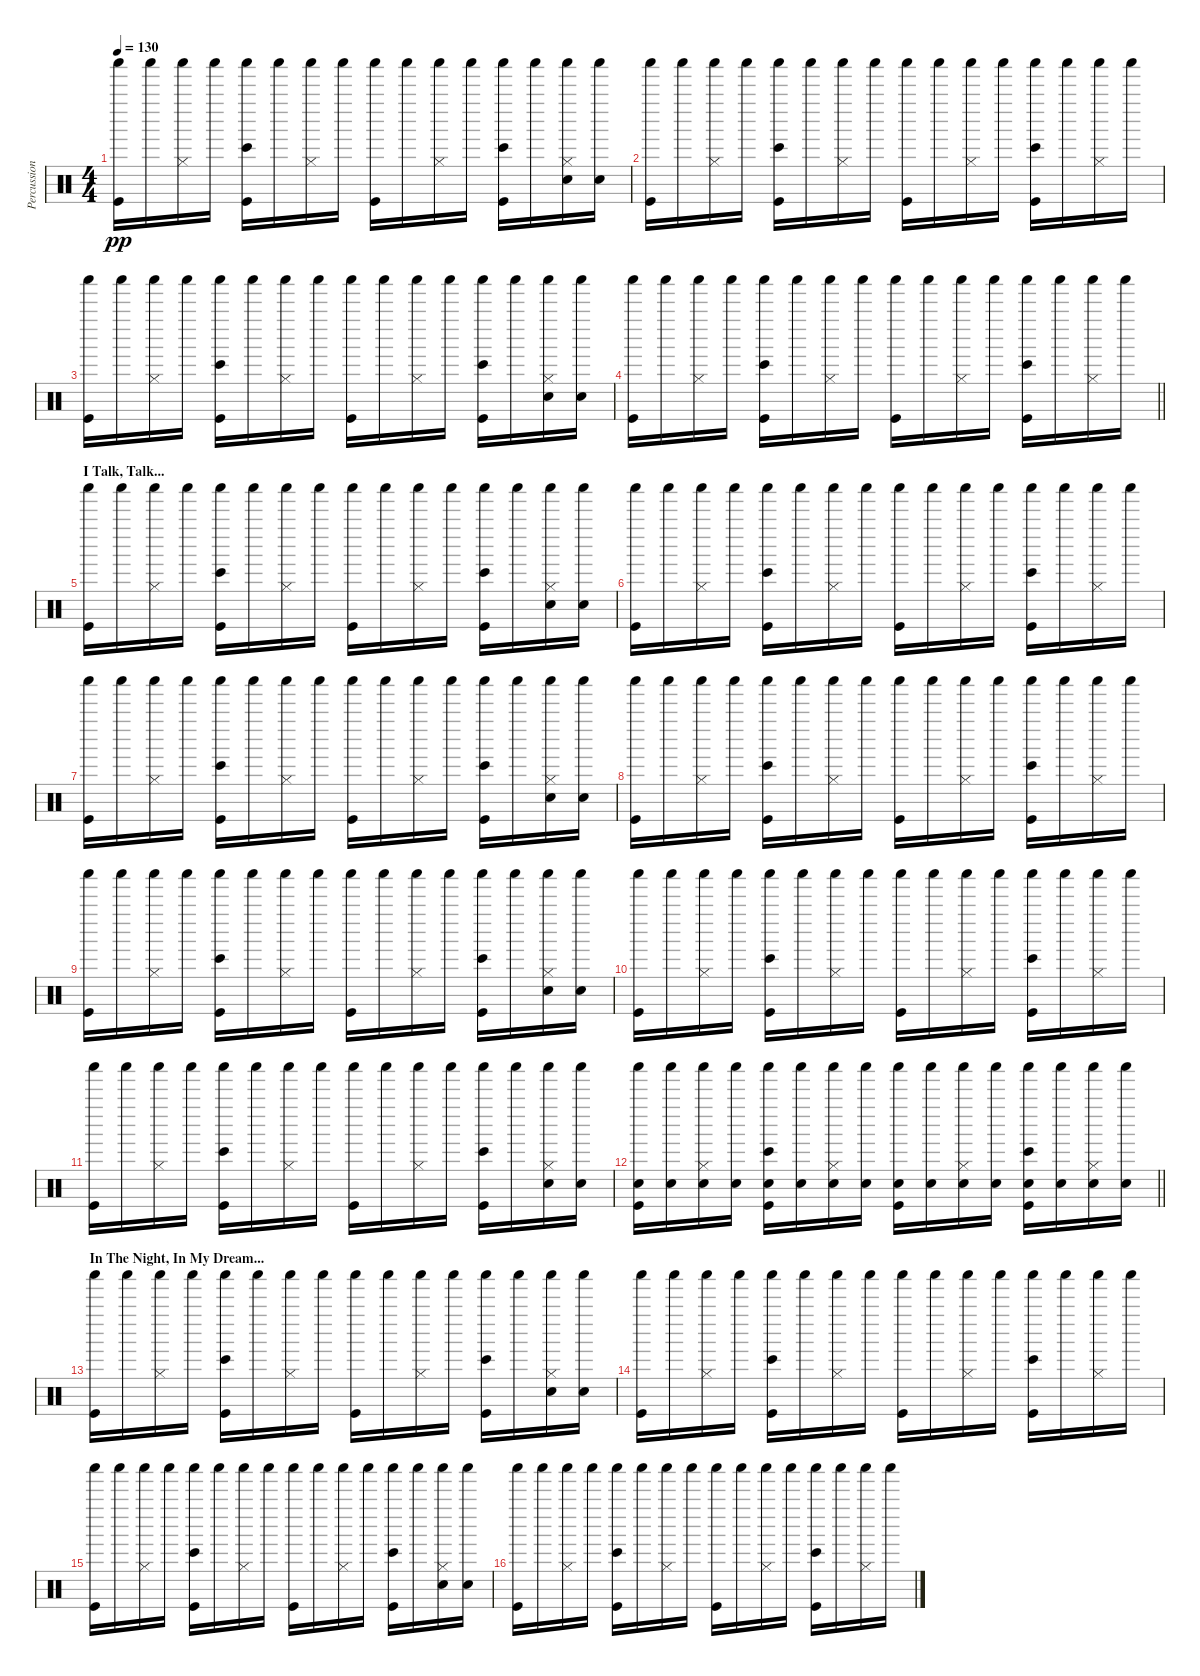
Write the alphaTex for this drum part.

\track ("Percussion" "Percussion") {instrument percussion}
\staff {score}
\articulation defaults
\ts (4 4)
\tempo 130
\clef neutral
\ks c
("Kick (hit)" "Shaker (hit)").16{dy pp} "Shaker (hit)".16 ("Hi-Hat (closed)" "Shaker (hit)").16 "Shaker (hit)".16 ("Kick (hit)" "Bongo High (hit)" "Shaker (hit)").16 "Shaker (hit)".16 ("Hi-Hat (closed)" "Shaker (hit)").16 "Shaker (hit)".16 ("Kick (hit)" "Shaker (hit)").16 "Shaker (hit)".16 ("Hi-Hat (closed)" "Shaker (hit)").16 "Shaker (hit)".16 ("Kick (hit)" "Bongo High (hit)" "Shaker (hit)").16 "Shaker (hit)".16 ("Electric Snare (hit)" "Hi-Hat (closed)" "Shaker (hit)").16 ("Electric Snare (hit)" "Shaker (hit)").16 |
("Kick (hit)" "Shaker (hit)").16 "Shaker (hit)".16 ("Hi-Hat (closed)" "Shaker (hit)").16 "Shaker (hit)".16 ("Kick (hit)" "Bongo High (hit)" "Shaker (hit)").16 "Shaker (hit)".16 ("Hi-Hat (closed)" "Shaker (hit)").16 "Shaker (hit)".16 ("Kick (hit)" "Shaker (hit)").16 "Shaker (hit)".16 ("Hi-Hat (closed)" "Shaker (hit)").16 "Shaker (hit)".16 ("Kick (hit)" "Bongo High (hit)" "Shaker (hit)").16 "Shaker (hit)".16 ("Hi-Hat (closed)" "Shaker (hit)").16 "Shaker (hit)".16 |
("Kick (hit)" "Shaker (hit)").16 "Shaker (hit)".16 ("Hi-Hat (closed)" "Shaker (hit)").16 "Shaker (hit)".16 ("Kick (hit)" "Bongo High (hit)" "Shaker (hit)").16 "Shaker (hit)".16 ("Hi-Hat (closed)" "Shaker (hit)").16 "Shaker (hit)".16 ("Kick (hit)" "Shaker (hit)").16 "Shaker (hit)".16 ("Hi-Hat (closed)" "Shaker (hit)").16 "Shaker (hit)".16 ("Kick (hit)" "Bongo High (hit)" "Shaker (hit)").16 "Shaker (hit)".16 ("Electric Snare (hit)" "Hi-Hat (closed)" "Shaker (hit)").16 ("Electric Snare (hit)" "Shaker (hit)").16 |
\barLineRight lightlight
("Kick (hit)" "Shaker (hit)").16 "Shaker (hit)".16 ("Hi-Hat (closed)" "Shaker (hit)").16 "Shaker (hit)".16 ("Kick (hit)" "Bongo High (hit)" "Shaker (hit)").16 "Shaker (hit)".16 ("Hi-Hat (closed)" "Shaker (hit)").16 "Shaker (hit)".16 ("Kick (hit)" "Shaker (hit)").16 "Shaker (hit)".16 ("Hi-Hat (closed)" "Shaker (hit)").16 "Shaker (hit)".16 ("Kick (hit)" "Bongo High (hit)" "Shaker (hit)").16 "Shaker (hit)".16 ("Hi-Hat (closed)" "Shaker (hit)").16 "Shaker (hit)".16 |
\section ("" "I Talk, Talk...")
("Kick (hit)" "Shaker (hit)").16 "Shaker (hit)".16 ("Hi-Hat (closed)" "Shaker (hit)").16 "Shaker (hit)".16 ("Kick (hit)" "Bongo High (hit)" "Shaker (hit)").16 "Shaker (hit)".16 ("Hi-Hat (closed)" "Shaker (hit)").16 "Shaker (hit)".16 ("Kick (hit)" "Shaker (hit)").16 "Shaker (hit)".16 ("Hi-Hat (closed)" "Shaker (hit)").16 "Shaker (hit)".16 ("Kick (hit)" "Bongo High (hit)" "Shaker (hit)").16 "Shaker (hit)".16 ("Electric Snare (hit)" "Hi-Hat (closed)" "Shaker (hit)").16 ("Electric Snare (hit)" "Shaker (hit)").16 |
("Kick (hit)" "Shaker (hit)").16 "Shaker (hit)".16 ("Hi-Hat (closed)" "Shaker (hit)").16 "Shaker (hit)".16 ("Kick (hit)" "Bongo High (hit)" "Shaker (hit)").16 "Shaker (hit)".16 ("Hi-Hat (closed)" "Shaker (hit)").16 "Shaker (hit)".16 ("Kick (hit)" "Shaker (hit)").16 "Shaker (hit)".16 ("Hi-Hat (closed)" "Shaker (hit)").16 "Shaker (hit)".16 ("Kick (hit)" "Bongo High (hit)" "Shaker (hit)").16 "Shaker (hit)".16 ("Hi-Hat (closed)" "Shaker (hit)").16 "Shaker (hit)".16 |
("Kick (hit)" "Shaker (hit)").16 "Shaker (hit)".16 ("Hi-Hat (closed)" "Shaker (hit)").16 "Shaker (hit)".16 ("Kick (hit)" "Bongo High (hit)" "Shaker (hit)").16 "Shaker (hit)".16 ("Hi-Hat (closed)" "Shaker (hit)").16 "Shaker (hit)".16 ("Kick (hit)" "Shaker (hit)").16 "Shaker (hit)".16 ("Hi-Hat (closed)" "Shaker (hit)").16 "Shaker (hit)".16 ("Kick (hit)" "Bongo High (hit)" "Shaker (hit)").16 "Shaker (hit)".16 ("Electric Snare (hit)" "Hi-Hat (closed)" "Shaker (hit)").16 ("Electric Snare (hit)" "Shaker (hit)").16 |
("Kick (hit)" "Shaker (hit)").16 "Shaker (hit)".16 ("Hi-Hat (closed)" "Shaker (hit)").16 "Shaker (hit)".16 ("Kick (hit)" "Bongo High (hit)" "Shaker (hit)").16 "Shaker (hit)".16 ("Hi-Hat (closed)" "Shaker (hit)").16 "Shaker (hit)".16 ("Kick (hit)" "Shaker (hit)").16 "Shaker (hit)".16 ("Hi-Hat (closed)" "Shaker (hit)").16 "Shaker (hit)".16 ("Kick (hit)" "Bongo High (hit)" "Shaker (hit)").16 "Shaker (hit)".16 ("Hi-Hat (closed)" "Shaker (hit)").16 "Shaker (hit)".16 |
("Kick (hit)" "Shaker (hit)").16 "Shaker (hit)".16 ("Hi-Hat (closed)" "Shaker (hit)").16 "Shaker (hit)".16 ("Kick (hit)" "Bongo High (hit)" "Shaker (hit)").16 "Shaker (hit)".16 ("Hi-Hat (closed)" "Shaker (hit)").16 "Shaker (hit)".16 ("Kick (hit)" "Shaker (hit)").16 "Shaker (hit)".16 ("Hi-Hat (closed)" "Shaker (hit)").16 "Shaker (hit)".16 ("Kick (hit)" "Bongo High (hit)" "Shaker (hit)").16 "Shaker (hit)".16 ("Electric Snare (hit)" "Hi-Hat (closed)" "Shaker (hit)").16 ("Electric Snare (hit)" "Shaker (hit)").16 |
("Kick (hit)" "Shaker (hit)").16 "Shaker (hit)".16 ("Hi-Hat (closed)" "Shaker (hit)").16 "Shaker (hit)".16 ("Kick (hit)" "Bongo High (hit)" "Shaker (hit)").16 "Shaker (hit)".16 ("Hi-Hat (closed)" "Shaker (hit)").16 "Shaker (hit)".16 ("Kick (hit)" "Shaker (hit)").16 "Shaker (hit)".16 ("Hi-Hat (closed)" "Shaker (hit)").16 "Shaker (hit)".16 ("Kick (hit)" "Bongo High (hit)" "Shaker (hit)").16 "Shaker (hit)".16 ("Hi-Hat (closed)" "Shaker (hit)").16 "Shaker (hit)".16 |
("Kick (hit)" "Shaker (hit)").16 "Shaker (hit)".16 ("Hi-Hat (closed)" "Shaker (hit)").16 "Shaker (hit)".16 ("Kick (hit)" "Bongo High (hit)" "Shaker (hit)").16 "Shaker (hit)".16 ("Hi-Hat (closed)" "Shaker (hit)").16 "Shaker (hit)".16 ("Kick (hit)" "Shaker (hit)").16 "Shaker (hit)".16 ("Hi-Hat (closed)" "Shaker (hit)").16 "Shaker (hit)".16 ("Kick (hit)" "Bongo High (hit)" "Shaker (hit)").16 "Shaker (hit)".16 ("Electric Snare (hit)" "Hi-Hat (closed)" "Shaker (hit)").16 ("Electric Snare (hit)" "Shaker (hit)").16 |
\barLineRight lightlight
("Kick (hit)" "Electric Snare (hit)" "Shaker (hit)").16 ("Electric Snare (hit)" "Shaker (hit)").16 ("Electric Snare (hit)" "Hi-Hat (closed)" "Shaker (hit)").16 ("Electric Snare (hit)" "Shaker (hit)").16 ("Kick (hit)" "Bongo High (hit)" "Electric Snare (hit)" "Shaker (hit)").16 ("Electric Snare (hit)" "Shaker (hit)").16 ("Electric Snare (hit)" "Hi-Hat (closed)" "Shaker (hit)").16 ("Electric Snare (hit)" "Shaker (hit)").16 ("Kick (hit)" "Electric Snare (hit)" "Shaker (hit)").16 ("Electric Snare (hit)" "Shaker (hit)").16 ("Electric Snare (hit)" "Hi-Hat (closed)" "Shaker (hit)").16 ("Electric Snare (hit)" "Shaker (hit)").16 ("Kick (hit)" "Bongo High (hit)" "Electric Snare (hit)" "Shaker (hit)").16 ("Electric Snare (hit)" "Shaker (hit)").16 ("Electric Snare (hit)" "Hi-Hat (closed)" "Shaker (hit)").16 ("Electric Snare (hit)" "Shaker (hit)").16 |
\section ("" "In The Night, In My Dream...")
("Kick (hit)" "Shaker (hit)").16 "Shaker (hit)".16 ("Hi-Hat (closed)" "Shaker (hit)").16 "Shaker (hit)".16 ("Kick (hit)" "Bongo High (hit)" "Shaker (hit)").16 "Shaker (hit)".16 ("Hi-Hat (closed)" "Shaker (hit)").16 "Shaker (hit)".16 ("Kick (hit)" "Shaker (hit)").16 "Shaker (hit)".16 ("Hi-Hat (closed)" "Shaker (hit)").16 "Shaker (hit)".16 ("Kick (hit)" "Bongo High (hit)" "Shaker (hit)").16 "Shaker (hit)".16 ("Electric Snare (hit)" "Hi-Hat (closed)" "Shaker (hit)").16 ("Electric Snare (hit)" "Shaker (hit)").16 |
("Kick (hit)" "Shaker (hit)").16 "Shaker (hit)".16 ("Hi-Hat (closed)" "Shaker (hit)").16 "Shaker (hit)".16 ("Kick (hit)" "Bongo High (hit)" "Shaker (hit)").16 "Shaker (hit)".16 ("Hi-Hat (closed)" "Shaker (hit)").16 "Shaker (hit)".16 ("Kick (hit)" "Shaker (hit)").16 "Shaker (hit)".16 ("Hi-Hat (closed)" "Shaker (hit)").16 "Shaker (hit)".16 ("Kick (hit)" "Bongo High (hit)" "Shaker (hit)").16 "Shaker (hit)".16 ("Hi-Hat (closed)" "Shaker (hit)").16 "Shaker (hit)".16 |
("Kick (hit)" "Shaker (hit)").16 "Shaker (hit)".16 ("Hi-Hat (closed)" "Shaker (hit)").16 "Shaker (hit)".16 ("Kick (hit)" "Bongo High (hit)" "Shaker (hit)").16 "Shaker (hit)".16 ("Hi-Hat (closed)" "Shaker (hit)").16 "Shaker (hit)".16 ("Kick (hit)" "Shaker (hit)").16 "Shaker (hit)".16 ("Hi-Hat (closed)" "Shaker (hit)").16 "Shaker (hit)".16 ("Kick (hit)" "Bongo High (hit)" "Shaker (hit)").16 "Shaker (hit)".16 ("Electric Snare (hit)" "Hi-Hat (closed)" "Shaker (hit)").16 ("Electric Snare (hit)" "Shaker (hit)").16 |
("Kick (hit)" "Shaker (hit)").16 "Shaker (hit)".16 ("Hi-Hat (closed)" "Shaker (hit)").16 "Shaker (hit)".16 ("Kick (hit)" "Bongo High (hit)" "Shaker (hit)").16 "Shaker (hit)".16 ("Hi-Hat (closed)" "Shaker (hit)").16 "Shaker (hit)".16 ("Kick (hit)" "Shaker (hit)").16 "Shaker (hit)".16 ("Hi-Hat (closed)" "Shaker (hit)").16 "Shaker (hit)".16 ("Kick (hit)" "Bongo High (hit)" "Shaker (hit)").16 "Shaker (hit)".16 ("Hi-Hat (closed)" "Shaker (hit)").16 "Shaker (hit)".16
